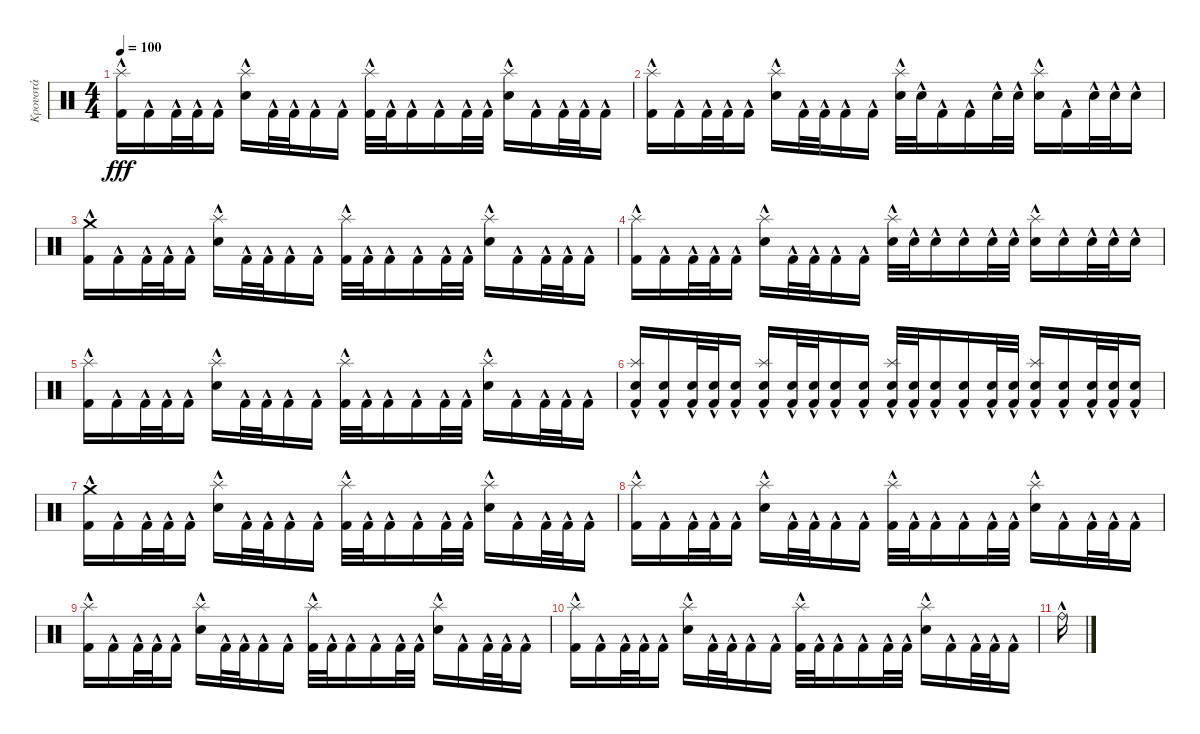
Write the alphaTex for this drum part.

\track ("Κρουστά" "Κρουστά") {instrument percussion}
\staff {score}
\articulation defaults
\ts (4 4)
\tempo 100
\clef neutral
\ks c
("Kick (hit) 2"{hac} "Splash (hit)").16{dy fff} "Kick (hit) 2"{hac}.16 "Kick (hit) 2"{hac}.32 "Kick (hit) 2"{hac}.32 "Kick (hit) 2"{hac}.16 ("Electric Snare (hit)"{hac} "Splash (hit)").16 "Kick (hit) 2"{hac}.32 "Kick (hit) 2"{hac}.32 "Kick (hit) 2"{hac}.16 "Kick (hit) 2"{hac}.16 ("Kick (hit) 2"{hac} "Splash (hit)").32 "Kick (hit) 2"{hac}.32 "Kick (hit) 2"{hac}.16 "Kick (hit) 2"{hac}.16 "Kick (hit) 2"{hac}.32 "Kick (hit) 2"{hac}.32 ("Electric Snare (hit)"{hac} "Splash (hit)").16 "Kick (hit) 2"{hac}.16 "Kick (hit) 2"{hac}.32 "Kick (hit) 2"{hac}.32 "Kick (hit) 2"{hac}.16 |
("Kick (hit) 2"{hac} "Splash (hit)").16 "Kick (hit) 2"{hac}.16 "Kick (hit) 2"{hac}.32 "Kick (hit) 2"{hac}.32 "Kick (hit) 2"{hac}.16 ("Electric Snare (hit)"{hac} "Splash (hit)").16 "Kick (hit) 2"{hac}.32 "Kick (hit) 2"{hac}.32 "Kick (hit) 2"{hac}.16 "Kick (hit) 2"{hac}.16 ("Electric Snare (hit)"{hac} "Splash (hit)").32 "Electric Snare (hit)"{hac}.32 "Kick (hit) 2"{hac}.16 "Kick (hit) 2"{hac}.16 "Electric Snare (hit)"{hac}.32 "Electric Snare (hit)"{hac}.32 ("Electric Snare (hit)"{hac} "Splash (hit)").16 "Kick (hit) 2"{hac}.16 "Electric Snare (hit)"{hac}.32 "Electric Snare (hit)"{hac}.32 "Electric Snare (hit)"{hac}.16 |
("Kick (hit) 2"{hac} "Crash medium (hit)").16 "Kick (hit) 2"{hac}.16 "Kick (hit) 2"{hac}.32{volume 4} "Kick (hit) 2"{hac}.32 "Kick (hit) 2"{hac}.16 ("Electric Snare (hit)"{hac} "Splash (hit)").16 "Kick (hit) 2"{hac}.32 "Kick (hit) 2"{hac}.32 "Kick (hit) 2"{hac}.16 "Kick (hit) 2"{hac}.16 ("Kick (hit) 2"{hac} "Splash (hit)").32 "Kick (hit) 2"{hac}.32 "Kick (hit) 2"{hac}.16 "Kick (hit) 2"{hac}.16 "Kick (hit) 2"{hac}.32 "Kick (hit) 2"{hac}.32 ("Electric Snare (hit)"{hac} "Splash (hit)").16 "Kick (hit) 2"{hac}.16 "Kick (hit) 2"{hac}.32 "Kick (hit) 2"{hac}.32 "Kick (hit) 2"{hac}.16 |
("Kick (hit) 2"{hac} "Splash (hit)").16 "Kick (hit) 2"{hac}.16 "Kick (hit) 2"{hac}.32 "Kick (hit) 2"{hac}.32 "Kick (hit) 2"{hac}.16 ("Electric Snare (hit)"{hac} "Splash (hit)").16 "Kick (hit) 2"{hac}.32 "Kick (hit) 2"{hac}.32 "Kick (hit) 2"{hac}.16 "Kick (hit) 2"{hac}.16 ("Electric Snare (hit)"{hac} "Splash (hit)").32 "Electric Snare (hit)"{hac}.32 "Electric Snare (hit)"{hac}.16 "Electric Snare (hit)"{hac}.16 "Electric Snare (hit)"{hac}.32 "Electric Snare (hit)"{hac}.32 ("Electric Snare (hit)"{hac} "Splash (hit)").16 "Electric Snare (hit)"{hac}.16 "Electric Snare (hit)"{hac}.32 "Electric Snare (hit)"{hac}.32 "Electric Snare (hit)"{hac}.16 |
("Kick (hit) 2"{hac} "Splash (hit)").16 "Kick (hit) 2"{hac}.16 "Kick (hit) 2"{hac}.32 "Kick (hit) 2"{hac}.32 "Kick (hit) 2"{hac}.16 ("Electric Snare (hit)"{hac} "Splash (hit)").16 "Kick (hit) 2"{hac}.32 "Kick (hit) 2"{hac}.32 "Kick (hit) 2"{hac}.16 "Kick (hit) 2"{hac}.16 ("Kick (hit) 2"{hac} "Splash (hit)").32 "Kick (hit) 2"{hac}.32 "Kick (hit) 2"{hac}.16 "Kick (hit) 2"{hac}.16 "Kick (hit) 2"{hac}.32 "Kick (hit) 2"{hac}.32 ("Electric Snare (hit)"{hac} "Splash (hit)").16 "Kick (hit) 2"{hac}.16 "Kick (hit) 2"{hac}.32 "Kick (hit) 2"{hac}.32 "Kick (hit) 2"{hac}.16 |
("Electric Snare (hit)"{hac} "Kick (hit) 2"{hac} "Splash (hit)").16 ("Electric Snare (hit)"{hac} "Kick (hit) 2"{hac}).16 ("Electric Snare (hit)"{hac} "Kick (hit) 2"{hac}).32 ("Electric Snare (hit)"{hac} "Kick (hit) 2"{hac}).32 ("Electric Snare (hit)"{hac} "Kick (hit) 2"{hac}).16 ("Electric Snare (hit)"{hac} "Kick (hit) 2"{hac} "Splash (hit)").16 ("Electric Snare (hit)"{hac} "Kick (hit) 2"{hac}).32 ("Electric Snare (hit)"{hac} "Kick (hit) 2"{hac}).32 ("Electric Snare (hit)"{hac} "Kick (hit) 2"{hac}).16 ("Electric Snare (hit)"{hac} "Kick (hit) 2"{hac}).16 ("Electric Snare (hit)"{hac} "Kick (hit) 2"{hac} "Splash (hit)").32 ("Electric Snare (hit)"{hac} "Kick (hit) 2"{hac}).32 ("Electric Snare (hit)"{hac} "Kick (hit) 2"{hac}).16 ("Electric Snare (hit)"{hac} "Kick (hit) 2"{hac}).16 ("Electric Snare (hit)"{hac} "Kick (hit) 2"{hac}).32 ("Electric Snare (hit)"{hac} "Kick (hit) 2"{hac}).32 ("Electric Snare (hit)"{hac} "Kick (hit) 2"{hac} "Splash (hit)").16 ("Electric Snare (hit)"{hac} "Kick (hit) 2"{hac}).16 ("Electric Snare (hit)"{hac} "Kick (hit) 2"{hac}).32 ("Electric Snare (hit)"{hac} "Kick (hit) 2"{hac}).32 ("Electric Snare (hit)"{hac} "Kick (hit) 2"{hac}).16 |
("Kick (hit) 2"{hac} "Crash medium (hit)").16 "Kick (hit) 2"{hac}.16 "Kick (hit) 2"{hac}.32 "Kick (hit) 2"{hac}.32 "Kick (hit) 2"{hac}.16 ("Electric Snare (hit)"{hac} "Splash (hit)").16{volume 0} "Kick (hit) 2"{hac}.32 "Kick (hit) 2"{hac}.32 "Kick (hit) 2"{hac}.16 "Kick (hit) 2"{hac}.16 ("Kick (hit) 2"{hac} "Splash (hit)").32 "Kick (hit) 2"{hac}.32 "Kick (hit) 2"{hac}.16 "Kick (hit) 2"{hac}.16 "Kick (hit) 2"{hac}.32 "Kick (hit) 2"{hac}.32 ("Electric Snare (hit)"{hac} "Splash (hit)").16 "Kick (hit) 2"{hac}.16 "Kick (hit) 2"{hac}.32 "Kick (hit) 2"{hac}.32 "Kick (hit) 2"{hac}.16 |
("Kick (hit) 2"{hac} "Splash (hit)").16 "Kick (hit) 2"{hac}.16 "Kick (hit) 2"{hac}.32 "Kick (hit) 2"{hac}.32 "Kick (hit) 2"{hac}.16 ("Electric Snare (hit)"{hac} "Splash (hit)").16 "Kick (hit) 2"{hac}.32 "Kick (hit) 2"{hac}.32 "Kick (hit) 2"{hac}.16 "Kick (hit) 2"{hac}.16 ("Kick (hit) 2"{hac} "Splash (hit)").32 "Kick (hit) 2"{hac}.32 "Kick (hit) 2"{hac}.16 "Kick (hit) 2"{hac}.16 "Kick (hit) 2"{hac}.32 "Kick (hit) 2"{hac}.32 ("Electric Snare (hit)"{hac} "Splash (hit)").16 "Kick (hit) 2"{hac}.16 "Kick (hit) 2"{hac}.32 "Kick (hit) 2"{hac}.32 "Kick (hit) 2"{hac}.16 |
("Kick (hit) 2"{hac} "Splash (hit)").16 "Kick (hit) 2"{hac}.16 "Kick (hit) 2"{hac}.32 "Kick (hit) 2"{hac}.32 "Kick (hit) 2"{hac}.16 ("Electric Snare (hit)"{hac} "Splash (hit)").16 "Kick (hit) 2"{hac}.32 "Kick (hit) 2"{hac}.32 "Kick (hit) 2"{hac}.16 "Kick (hit) 2"{hac}.16 ("Kick (hit) 2"{hac} "Splash (hit)").32 "Kick (hit) 2"{hac}.32 "Kick (hit) 2"{hac}.16 "Kick (hit) 2"{hac}.16 "Kick (hit) 2"{hac}.32 "Kick (hit) 2"{hac}.32 ("Electric Snare (hit)"{hac} "Splash (hit)").16 "Kick (hit) 2"{hac}.16 "Kick (hit) 2"{hac}.32 "Kick (hit) 2"{hac}.32 "Kick (hit) 2"{hac}.16 |
("Kick (hit) 2"{hac} "Splash (hit)").16 "Kick (hit) 2"{hac}.16 "Kick (hit) 2"{hac}.32 "Kick (hit) 2"{hac}.32 "Kick (hit) 2"{hac}.16 ("Electric Snare (hit)"{hac} "Splash (hit)").16 "Kick (hit) 2"{hac}.32 "Kick (hit) 2"{hac}.32 "Kick (hit) 2"{hac}.16 "Kick (hit) 2"{hac}.16 ("Kick (hit) 2"{hac} "Splash (hit)").32 "Kick (hit) 2"{hac}.32 "Kick (hit) 2"{hac}.16 "Kick (hit) 2"{hac}.16 "Kick (hit) 2"{hac}.32 "Kick (hit) 2"{hac}.32 ("Electric Snare (hit)"{hac} "Splash (hit)").16 "Kick (hit) 2"{hac}.16 "Kick (hit) 2"{hac}.32 "Kick (hit) 2"{hac}.32 "Kick (hit) 2"{hac}.16 |
"Ride (bell)"{hac}.16
